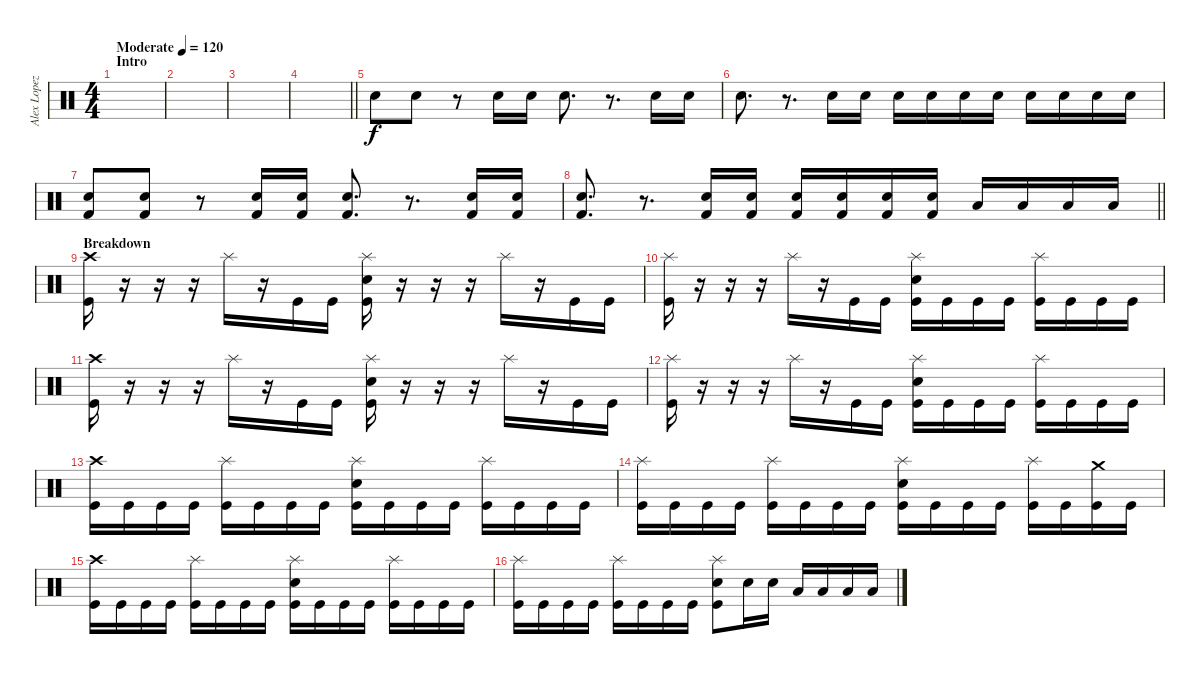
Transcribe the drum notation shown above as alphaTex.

\track ("Alex Lopez - Drums" "Alex Lopez") {instrument percussion}
\staff {score}
\articulation defaults
\ts (4 4)
\section ("" "Intro")
\tempo (120 "Moderate")
\clef neutral
\ks c
|
|
|
\barLineRight lightlight
|
\section ("" "")
"Electric Snare (hit)".8 "Electric Snare (hit)".8 r.8 "Electric Snare (hit)".16 "Electric Snare (hit)".16 "Electric Snare (hit)".8{d} r.8{d} "Electric Snare (hit)".16 "Electric Snare (hit)".16 |
"Electric Snare (hit)".8{d} r.8{d} "Electric Snare (hit)".16 "Electric Snare (hit)".16 "Electric Snare (hit)".16 "Electric Snare (hit)".16 "Electric Snare (hit)".16 "Electric Snare (hit)".16 "Electric Snare (hit)".16 "Electric Snare (hit)".16 "Electric Snare (hit)".16 "Electric Snare (hit)".16 |
("Electric Snare (hit)" "Kick (hit) 2").8 ("Electric Snare (hit)" "Kick (hit) 2").8 r.8 ("Electric Snare (hit)" "Kick (hit) 2").16 ("Electric Snare (hit)" "Kick (hit) 2").16 ("Electric Snare (hit)" "Kick (hit) 2").8{d} r.8{d} ("Electric Snare (hit)" "Kick (hit) 2").16 ("Electric Snare (hit)" "Kick (hit) 2").16 |
\barLineRight lightlight
("Electric Snare (hit)" "Kick (hit) 2").8{d} r.8{d} ("Electric Snare (hit)" "Kick (hit) 2").16 ("Electric Snare (hit)" "Kick (hit) 2").16 ("Electric Snare (hit)" "Kick (hit) 2").16 ("Electric Snare (hit)" "Kick (hit) 2").16 ("Electric Snare (hit)" "Kick (hit) 2").16 ("Electric Snare (hit)" "Kick (hit) 2").16 "Low Tom (hit)".16 "Low Tom (hit)".16 "Low Floor Tom (hit)".16 "Low Floor Tom (hit)".16 |
\section ("" "Breakdown")
("Crash high (hit)" "Kick (hit)").16 r.16 r.16 r.16 "Splash (hit)".16 r.16 "Kick (hit)".16 "Kick (hit)".16 ("Splash (hit)" "Electric Snare (hit)" "Kick (hit)").16 r.16 r.16 r.16 "Splash (hit)".16 r.16 "Kick (hit)".16 "Kick (hit)".16 |
("Splash (hit)" "Kick (hit)").16 r.16 r.16 r.16 "Splash (hit)".16 r.16 "Kick (hit)".16 "Kick (hit)".16 ("Splash (hit)" "Electric Snare (hit)" "Kick (hit)").16 "Kick (hit)".16 "Kick (hit)".16 "Kick (hit)".16 ("Splash (hit)" "Kick (hit)").16 "Kick (hit)".16 "Kick (hit)".16 "Kick (hit)".16 |
("Crash high (hit)" "Kick (hit)").16 r.16 r.16 r.16 "Splash (hit)".16 r.16 "Kick (hit)".16 "Kick (hit)".16 ("Splash (hit)" "Electric Snare (hit)" "Kick (hit)").16 r.16 r.16 r.16 "Splash (hit)".16 r.16 "Kick (hit)".16 "Kick (hit)".16 |
("Splash (hit)" "Kick (hit)").16 r.16 r.16 r.16 "Splash (hit)".16 r.16 "Kick (hit)".16 "Kick (hit)".16 ("Splash (hit)" "Electric Snare (hit)" "Kick (hit)").16 "Kick (hit)".16 "Kick (hit)".16 "Kick (hit)".16 ("Splash (hit)" "Kick (hit)").16 "Kick (hit)".16 "Kick (hit)".16 "Kick (hit)".16 |
("Crash high (hit)" "Kick (hit)").16 "Kick (hit)".16 "Kick (hit)".16 "Kick (hit)".16 ("Splash (hit)" "Kick (hit)").16 "Kick (hit)".16 "Kick (hit)".16 "Kick (hit)".16 ("Splash (hit)" "Electric Snare (hit)" "Kick (hit)").16 "Kick (hit)".16 "Kick (hit)".16 "Kick (hit)".16 ("Splash (hit)" "Kick (hit)").16 "Kick (hit)".16 "Kick (hit)".16 "Kick (hit)".16 |
("Splash (hit)" "Kick (hit)").16 "Kick (hit)".16 "Kick (hit)".16 "Kick (hit)".16 ("Splash (hit)" "Kick (hit)").16 "Kick (hit)".16 "Kick (hit)".16 "Kick (hit)".16 ("Splash (hit)" "Electric Snare (hit)" "Kick (hit)").16 "Kick (hit)".16 "Kick (hit)".16 "Kick (hit)".16 ("Splash (hit)" "Kick (hit)").16 "Kick (hit)".16 ("Crash medium (hit)" "Kick (hit)").16 "Kick (hit)".16 |
("Crash high (hit)" "Kick (hit)").16 "Kick (hit)".16 "Kick (hit)".16 "Kick (hit)".16 ("Splash (hit)" "Kick (hit)").16 "Kick (hit)".16 "Kick (hit)".16 "Kick (hit)".16 ("Splash (hit)" "Electric Snare (hit)" "Kick (hit)").16 "Kick (hit)".16 "Kick (hit)".16 "Kick (hit)".16 ("Splash (hit)" "Kick (hit)").16 "Kick (hit)".16 "Kick (hit)".16 "Kick (hit)".16 |
("Splash (hit)" "Kick (hit)").16 "Kick (hit)".16 "Kick (hit)".16 "Kick (hit)".16 ("Splash (hit)" "Kick (hit)").16 "Kick (hit)".16 "Kick (hit)".16 "Kick (hit)".16 ("Splash (hit)" "Electric Snare (hit)" "Kick (hit)").8 "Snare (hit) 2".16 "Snare (hit) 2".16 "Low Tom (hit)".16 "Low Tom (hit)".16 "Low Floor Tom (hit)".16 "Low Floor Tom (hit)".16
